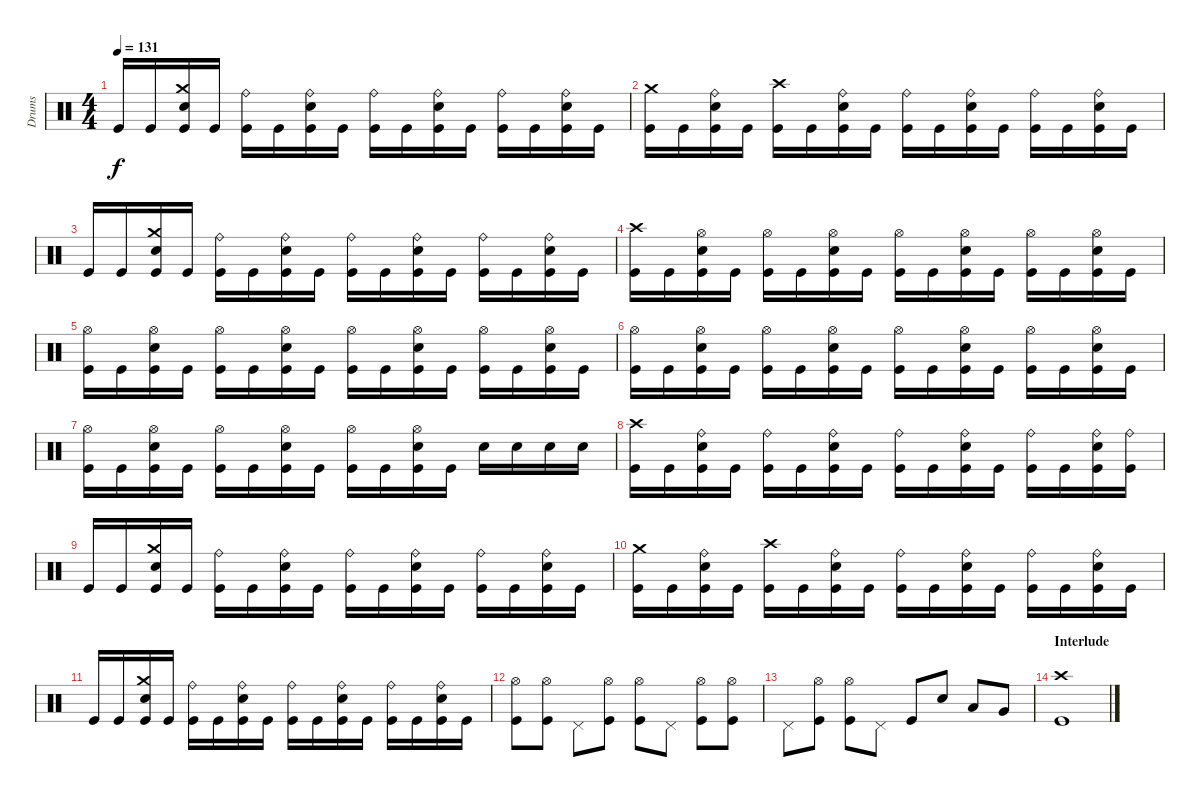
\track ("Drums" "Drums") {instrument percussion}
\staff {score}
\articulation defaults
\ts (4 4)
\tempo 131
\clef neutral
\ks c "Kick (hit)".16{dy f} "Kick (hit)".16
("Crash medium (hit)" "Snare (hit) 2" "Kick (hit)").16 "Kick (hit)".16 ("Ride (bell)" "Kick (hit)").16 "Kick (hit)".16 ("Ride (bell)" "Snare (hit) 2" "Kick (hit)").16 "Kick (hit)".16 ("Ride (bell)" "Kick (hit)").16 "Kick (hit)".16 ("Ride (bell)" "Snare (hit) 2" "Kick (hit)").16 "Kick (hit)".16 ("Ride (bell)" "Kick (hit)").16 "Kick (hit)".16 ("Ride (bell)" "Snare (hit) 2" "Kick (hit)").16 "Kick (hit)".16 |
("Crash medium (hit)" "Kick (hit)").16 "Kick (hit)".16 ("Ride (bell)" "Snare (hit) 2" "Kick (hit)").16 "Kick (hit)".16 ("Crash high (hit)" "Kick (hit)").16 "Kick (hit)".16 ("Ride (bell)" "Snare (hit) 2" "Kick (hit)").16 "Kick (hit)".16 ("Ride (bell)" "Kick (hit)").16 "Kick (hit)".16 ("Ride (bell)" "Snare (hit) 2" "Kick (hit)").16 "Kick (hit)".16 ("Ride (bell)" "Kick (hit)").16 "Kick (hit)".16 ("Ride (bell)" "Snare (hit) 2" "Kick (hit)").16 "Kick (hit)".16 |
"Kick (hit)".16 "Kick (hit)".16 ("Crash medium (hit)" "Snare (hit) 2" "Kick (hit)").16 "Kick (hit)".16 ("Ride (bell)" "Kick (hit)").16 "Kick (hit)".16 ("Ride (bell)" "Snare (hit) 2" "Kick (hit)").16 "Kick (hit)".16 ("Ride (bell)" "Kick (hit)").16 "Kick (hit)".16 ("Ride (bell)" "Snare (hit) 2" "Kick (hit)").16 "Kick (hit)".16 ("Ride (bell)" "Kick (hit)").16 "Kick (hit)".16 ("Ride (bell)" "Snare (hit) 2" "Kick (hit)").16 "Kick (hit)".16 |
("Crash high (hit)" "Kick (hit)").16 "Kick (hit)".16 ("Hi-Hat (open)" "Snare (hit) 2" "Kick (hit)").16 "Kick (hit)".16 ("Hi-Hat (open)" "Kick (hit)").16 "Kick (hit)".16 ("Hi-Hat (open)" "Snare (hit) 2" "Kick (hit)").16 "Kick (hit)".16 ("Hi-Hat (open)" "Kick (hit)").16 "Kick (hit)".16 ("Hi-Hat (open)" "Snare (hit) 2" "Kick (hit)").16 "Kick (hit)".16 ("Hi-Hat (open)" "Kick (hit)").16 "Kick (hit)".16 ("Hi-Hat (open)" "Snare (hit) 2" "Kick (hit)").16 "Kick (hit)".16 |
("Hi-Hat (open)" "Kick (hit)").16 "Kick (hit)".16 ("Hi-Hat (open)" "Snare (hit) 2" "Kick (hit)").16 "Kick (hit)".16 ("Hi-Hat (open)" "Kick (hit)").16 "Kick (hit)".16 ("Hi-Hat (open)" "Snare (hit) 2" "Kick (hit)").16 "Kick (hit)".16 ("Hi-Hat (open)" "Kick (hit)").16 "Kick (hit)".16 ("Hi-Hat (open)" "Snare (hit) 2" "Kick (hit)").16 "Kick (hit)".16 ("Hi-Hat (open)" "Kick (hit)").16 "Kick (hit)".16 ("Hi-Hat (open)" "Snare (hit) 2" "Kick (hit)").16 "Kick (hit)".16 |
("Hi-Hat (open)" "Kick (hit)").16 "Kick (hit)".16 ("Hi-Hat (open)" "Snare (hit) 2" "Kick (hit)").16 "Kick (hit)".16 ("Hi-Hat (open)" "Kick (hit)").16 "Kick (hit)".16 ("Hi-Hat (open)" "Snare (hit) 2" "Kick (hit)").16 "Kick (hit)".16 ("Hi-Hat (open)" "Kick (hit)").16 "Kick (hit)".16 ("Hi-Hat (open)" "Snare (hit) 2" "Kick (hit)").16 "Kick (hit)".16 ("Hi-Hat (open)" "Kick (hit)").16 "Kick (hit)".16 ("Hi-Hat (open)" "Snare (hit) 2" "Kick (hit)").16 "Kick (hit)".16 |
("Hi-Hat (open)" "Kick (hit)").16 "Kick (hit)".16 ("Hi-Hat (open)" "Snare (hit) 2" "Kick (hit)").16 "Kick (hit)".16 ("Hi-Hat (open)" "Kick (hit)").16 "Kick (hit)".16 ("Hi-Hat (open)" "Snare (hit) 2" "Kick (hit)").16 "Kick (hit)".16 ("Hi-Hat (open)" "Kick (hit)").16 "Kick (hit)".16 ("Hi-Hat (open)" "Snare (hit) 2" "Kick (hit)").16 "Kick (hit)".16 "Snare (hit) 2".16 "Snare (hit) 2".16 "Snare (hit) 2".16 "Snare (hit) 2".16 |
("Crash high (hit)" "Kick (hit)").16 "Kick (hit)".16 ("Ride (bell)" "Snare (hit) 2" "Kick (hit)").16 "Kick (hit)".16 ("Ride (bell)" "Kick (hit)").16 "Kick (hit)".16 ("Ride (bell)" "Snare (hit) 2" "Kick (hit)").16 "Kick (hit)".16 ("Ride (bell)" "Kick (hit)").16 "Kick (hit)".16 ("Ride (bell)" "Snare (hit) 2" "Kick (hit)").16 "Kick (hit)".16 ("Ride (bell)" "Kick (hit)").16 "Kick (hit)".16 ("Ride (bell)" "Snare (hit) 2" "Kick (hit)").16 ("Ride (bell)" "Kick (hit)").16 |
"Kick (hit)".16 "Kick (hit)".16 ("Crash medium (hit)" "Snare (hit) 2" "Kick (hit)").16 "Kick (hit)".16 ("Ride (bell)" "Kick (hit)").16 "Kick (hit)".16 ("Ride (bell)" "Snare (hit) 2" "Kick (hit)").16 "Kick (hit)".16 ("Ride (bell)" "Kick (hit)").16 "Kick (hit)".16 ("Ride (bell)" "Snare (hit) 2" "Kick (hit)").16 "Kick (hit)".16 ("Ride (bell)" "Kick (hit)").16 "Kick (hit)".16 ("Ride (bell)" "Snare (hit) 2" "Kick (hit)").16 "Kick (hit)".16 |
("Crash medium (hit)" "Kick (hit)").16 "Kick (hit)".16 ("Ride (bell)" "Snare (hit) 2" "Kick (hit)").16 "Kick (hit)".16 ("Crash high (hit)" "Kick (hit)").16 "Kick (hit)".16 ("Ride (bell)" "Snare (hit) 2" "Kick (hit)").16 "Kick (hit)".16 ("Ride (bell)" "Kick (hit)").16 "Kick (hit)".16 ("Ride (bell)" "Snare (hit) 2" "Kick (hit)").16 "Kick (hit)".16 ("Ride (bell)" "Kick (hit)").16 "Kick (hit)".16 ("Ride (bell)" "Snare (hit) 2" "Kick (hit)").16 "Kick (hit)".16 |
"Kick (hit)".16 "Kick (hit)".16 ("Crash medium (hit)" "Snare (hit) 2" "Kick (hit)").16 "Kick (hit)".16 ("Ride (bell)" "Kick (hit)").16 "Kick (hit)".16 ("Ride (bell)" "Snare (hit) 2" "Kick (hit)").16 "Kick (hit)".16 ("Ride (bell)" "Kick (hit)").16 "Kick (hit)".16 ("Ride (bell)" "Snare (hit) 2" "Kick (hit)").16 "Kick (hit)".16 ("Ride (bell)" "Kick (hit)").16 "Kick (hit)".16 ("Ride (bell)" "Snare (hit) 2" "Kick (hit)").16 "Kick (hit)".16 |
("Hi-Hat (open)" "Kick (hit)").8 ("Hi-Hat (open)" "Kick (hit)").8 "Pedal Hi-Hat (hit)".8 ("Hi-Hat (open)" "Kick (hit)").8 ("Hi-Hat (open)" "Kick (hit)").8 "Pedal Hi-Hat (hit)".8 ("Hi-Hat (open)" "Kick (hit)").8 ("Hi-Hat (open)" "Kick (hit)").8 |
"Pedal Hi-Hat (hit)".8 ("Hi-Hat (open)" "Kick (hit)").8 ("Hi-Hat (open)" "Kick (hit)").8 "Pedal Hi-Hat (hit)".8 "Kick (hit)".8 "Snare (hit) 2".8 "Low Tom (hit)".8 "Very Low Tom (hit)".8 |
\section ("" "Interlude")
("Crash high (hit)" "Kick (hit)").1
